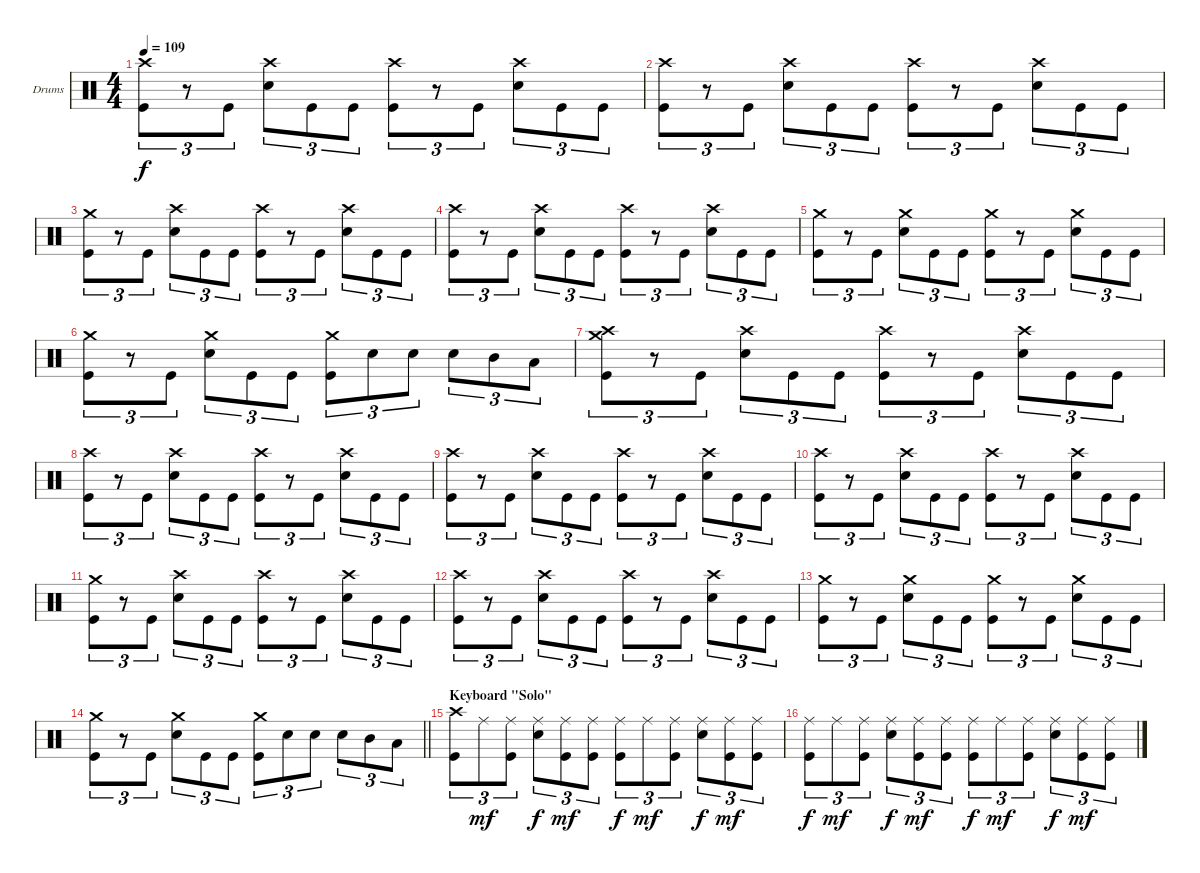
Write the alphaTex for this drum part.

\bracketExtendMode groupsimilarinstruments
\firstSystemTrackNameOrientation horizontal
\otherSystemsTrackNameOrientation horizontal
\track ("Drumkit" "Drums") {instrument percussion}
\staff {score}
\articulation defaults
\ts (4 4)
\tempo 109
\clef neutral
\ks c
("Crash high (hit)" "Kick (hit)").8{tu (3 2) dy f} r.8{tu (3 2)} "Kick (hit)".8{tu (3 2)} ("Crash high (hit)" "Snare (hit) 2").8{tu (3 2)} "Kick (hit)".8{tu (3 2)} "Kick (hit)".8{tu (3 2)} ("Crash high (hit)" "Kick (hit)").8{tu (3 2)} r.8{tu (3 2)} "Kick (hit)".8{tu (3 2)} ("Crash high (hit)" "Snare (hit) 2").8{tu (3 2)} "Kick (hit)".8{tu (3 2)} "Kick (hit)".8{tu (3 2)} |
("Crash high (hit)" "Kick (hit)").8{tu (3 2)} r.8{tu (3 2)} "Kick (hit)".8{tu (3 2)} ("Crash high (hit)" "Snare (hit) 2").8{tu (3 2)} "Kick (hit)".8{tu (3 2)} "Kick (hit)".8{tu (3 2)} ("Crash high (hit)" "Kick (hit)").8{tu (3 2)} r.8{tu (3 2)} "Kick (hit)".8{tu (3 2)} ("Crash high (hit)" "Snare (hit) 2").8{tu (3 2)} "Kick (hit)".8{tu (3 2)} "Kick (hit)".8{tu (3 2)} |
("Crash medium (hit)" "Kick (hit)").8{tu (3 2)} r.8{tu (3 2)} "Kick (hit)".8{tu (3 2)} ("Crash high (hit)" "Snare (hit) 2").8{tu (3 2)} "Kick (hit)".8{tu (3 2)} "Kick (hit)".8{tu (3 2)} ("Crash high (hit)" "Kick (hit)").8{tu (3 2)} r.8{tu (3 2)} "Kick (hit)".8{tu (3 2)} ("Crash high (hit)" "Snare (hit) 2").8{tu (3 2)} "Kick (hit)".8{tu (3 2)} "Kick (hit)".8{tu (3 2)} |
("Crash high (hit)" "Kick (hit)").8{tu (3 2)} r.8{tu (3 2)} "Kick (hit)".8{tu (3 2)} ("Crash high (hit)" "Snare (hit) 2").8{tu (3 2)} "Kick (hit)".8{tu (3 2)} "Kick (hit)".8{tu (3 2)} ("Crash high (hit)" "Kick (hit)").8{tu (3 2)} r.8{tu (3 2)} "Kick (hit)".8{tu (3 2)} ("Crash high (hit)" "Snare (hit) 2").8{tu (3 2)} "Kick (hit)".8{tu (3 2)} "Kick (hit)".8{tu (3 2)} |
("Crash medium (hit)" "Kick (hit)").8{tu (3 2)} r.8{tu (3 2)} "Kick (hit)".8{tu (3 2)} ("Crash medium (hit)" "Snare (hit) 2").8{tu (3 2)} "Kick (hit)".8{tu (3 2)} "Kick (hit)".8{tu (3 2)} ("Crash medium (hit)" "Kick (hit)").8{tu (3 2)} r.8{tu (3 2)} "Kick (hit)".8{tu (3 2)} ("Crash medium (hit)" "Snare (hit) 2").8{tu (3 2)} "Kick (hit)".8{tu (3 2)} "Kick (hit)".8{tu (3 2)} |
("Crash medium (hit)" "Kick (hit)").8{tu (3 2)} r.8{tu (3 2)} "Kick (hit)".8{tu (3 2)} ("Crash medium (hit)" "Snare (hit) 2").8{tu (3 2)} "Kick (hit)".8{tu (3 2)} "Kick (hit)".8{tu (3 2)} ("Crash medium (hit)" "Kick (hit)").8{tu (3 2)} "Snare (hit) 2".8{tu (3 2)} "Snare (hit) 2".8{tu (3 2)} "Snare (hit) 2".8{tu (3 2)} "Mid Tom (hit)".8{tu (3 2)} "Low Tom (hit)".8{tu (3 2)} |
("Crash high (hit)" "Crash medium (hit)" "Kick (hit)").8{tu (3 2)} r.8{tu (3 2)} "Kick (hit)".8{tu (3 2)} ("Crash high (hit)" "Snare (hit) 2").8{tu (3 2)} "Kick (hit)".8{tu (3 2)} "Kick (hit)".8{tu (3 2)} ("Crash high (hit)" "Kick (hit)").8{tu (3 2)} r.8{tu (3 2)} "Kick (hit)".8{tu (3 2)} ("Crash high (hit)" "Snare (hit) 2").8{tu (3 2)} "Kick (hit)".8{tu (3 2)} "Kick (hit)".8{tu (3 2)} |
("Crash high (hit)" "Kick (hit)").8{tu (3 2)} r.8{tu (3 2)} "Kick (hit)".8{tu (3 2)} ("Crash high (hit)" "Snare (hit) 2").8{tu (3 2)} "Kick (hit)".8{tu (3 2)} "Kick (hit)".8{tu (3 2)} ("Crash high (hit)" "Kick (hit)").8{tu (3 2)} r.8{tu (3 2)} "Kick (hit)".8{tu (3 2)} ("Crash high (hit)" "Snare (hit) 2").8{tu (3 2)} "Kick (hit)".8{tu (3 2)} "Kick (hit)".8{tu (3 2)} |
("Crash high (hit)" "Kick (hit)").8{tu (3 2)} r.8{tu (3 2)} "Kick (hit)".8{tu (3 2)} ("Crash high (hit)" "Snare (hit) 2").8{tu (3 2)} "Kick (hit)".8{tu (3 2)} "Kick (hit)".8{tu (3 2)} ("Crash high (hit)" "Kick (hit)").8{tu (3 2)} r.8{tu (3 2)} "Kick (hit)".8{tu (3 2)} ("Crash high (hit)" "Snare (hit) 2").8{tu (3 2)} "Kick (hit)".8{tu (3 2)} "Kick (hit)".8{tu (3 2)} |
("Crash high (hit)" "Kick (hit)").8{tu (3 2)} r.8{tu (3 2)} "Kick (hit)".8{tu (3 2)} ("Crash high (hit)" "Snare (hit) 2").8{tu (3 2)} "Kick (hit)".8{tu (3 2)} "Kick (hit)".8{tu (3 2)} ("Crash high (hit)" "Kick (hit)").8{tu (3 2)} r.8{tu (3 2)} "Kick (hit)".8{tu (3 2)} ("Crash high (hit)" "Snare (hit) 2").8{tu (3 2)} "Kick (hit)".8{tu (3 2)} "Kick (hit)".8{tu (3 2)} |
("Crash medium (hit)" "Kick (hit)").8{tu (3 2)} r.8{tu (3 2)} "Kick (hit)".8{tu (3 2)} ("Crash high (hit)" "Snare (hit) 2").8{tu (3 2)} "Kick (hit)".8{tu (3 2)} "Kick (hit)".8{tu (3 2)} ("Crash high (hit)" "Kick (hit)").8{tu (3 2)} r.8{tu (3 2)} "Kick (hit)".8{tu (3 2)} ("Crash high (hit)" "Snare (hit) 2").8{tu (3 2)} "Kick (hit)".8{tu (3 2)} "Kick (hit)".8{tu (3 2)} |
("Crash high (hit)" "Kick (hit)").8{tu (3 2)} r.8{tu (3 2)} "Kick (hit)".8{tu (3 2)} ("Crash high (hit)" "Snare (hit) 2").8{tu (3 2)} "Kick (hit)".8{tu (3 2)} "Kick (hit)".8{tu (3 2)} ("Crash high (hit)" "Kick (hit)").8{tu (3 2)} r.8{tu (3 2)} "Kick (hit)".8{tu (3 2)} ("Crash high (hit)" "Snare (hit) 2").8{tu (3 2)} "Kick (hit)".8{tu (3 2)} "Kick (hit)".8{tu (3 2)} |
("Crash medium (hit)" "Kick (hit)").8{tu (3 2)} r.8{tu (3 2)} "Kick (hit)".8{tu (3 2)} ("Crash medium (hit)" "Snare (hit) 2").8{tu (3 2)} "Kick (hit)".8{tu (3 2)} "Kick (hit)".8{tu (3 2)} ("Crash medium (hit)" "Kick (hit)").8{tu (3 2)} r.8{tu (3 2)} "Kick (hit)".8{tu (3 2)} ("Crash medium (hit)" "Snare (hit) 2").8{tu (3 2)} "Kick (hit)".8{tu (3 2)} "Kick (hit)".8{tu (3 2)} |
\barLineRight lightlight
("Crash medium (hit)" "Kick (hit)").8{tu (3 2)} r.8{tu (3 2)} "Kick (hit)".8{tu (3 2)} ("Crash medium (hit)" "Snare (hit) 2").8{tu (3 2)} "Kick (hit)".8{tu (3 2)} "Kick (hit)".8{tu (3 2)} ("Crash medium (hit)" "Kick (hit)").8{tu (3 2)} "Snare (hit) 2".8{tu (3 2)} "Snare (hit) 2".8{tu (3 2)} "Snare (hit) 2".8{tu (3 2)} "Mid Tom (hit)".8{tu (3 2)} "Low Tom (hit)".8{tu (3 2)} |
\section ("" "Keyboard \"Solo\"")
("Crash high (hit)" "Kick (hit)").8{tu (3 2)} "Ride (middle)".8{tu (3 2) dy mf} ("Ride (middle)" "Kick (hit)").8{tu (3 2)} ("Ride (middle)" "Snare (hit) 2").8{tu (3 2) dy f} ("Ride (middle)" "Kick (hit)").8{tu (3 2) dy mf} ("Ride (middle)" "Kick (hit)").8{tu (3 2)} ("Ride (middle)" "Kick (hit)").8{tu (3 2) dy f} "Ride (middle)".8{tu (3 2) dy mf} ("Ride (middle)" "Kick (hit)").8{tu (3 2)} ("Ride (middle)" "Snare (hit) 2").8{tu (3 2) dy f} ("Ride (middle)" "Kick (hit)").8{tu (3 2) dy mf} ("Ride (middle)" "Kick (hit)").8{tu (3 2)} |
("Ride (middle)" "Kick (hit)").8{tu (3 2) dy f} "Ride (middle)".8{tu (3 2) dy mf} ("Ride (middle)" "Kick (hit)").8{tu (3 2)} ("Ride (middle)" "Snare (hit) 2").8{tu (3 2) dy f} ("Ride (middle)" "Kick (hit)").8{tu (3 2) dy mf} ("Ride (middle)" "Kick (hit)").8{tu (3 2)} ("Ride (middle)" "Kick (hit)").8{tu (3 2) dy f} "Ride (middle)".8{tu (3 2) dy mf} ("Ride (middle)" "Kick (hit)").8{tu (3 2)} ("Ride (middle)" "Snare (hit) 2").8{tu (3 2) dy f} ("Ride (middle)" "Kick (hit)").8{tu (3 2) dy mf} ("Ride (middle)" "Kick (hit)").8{tu (3 2)}
